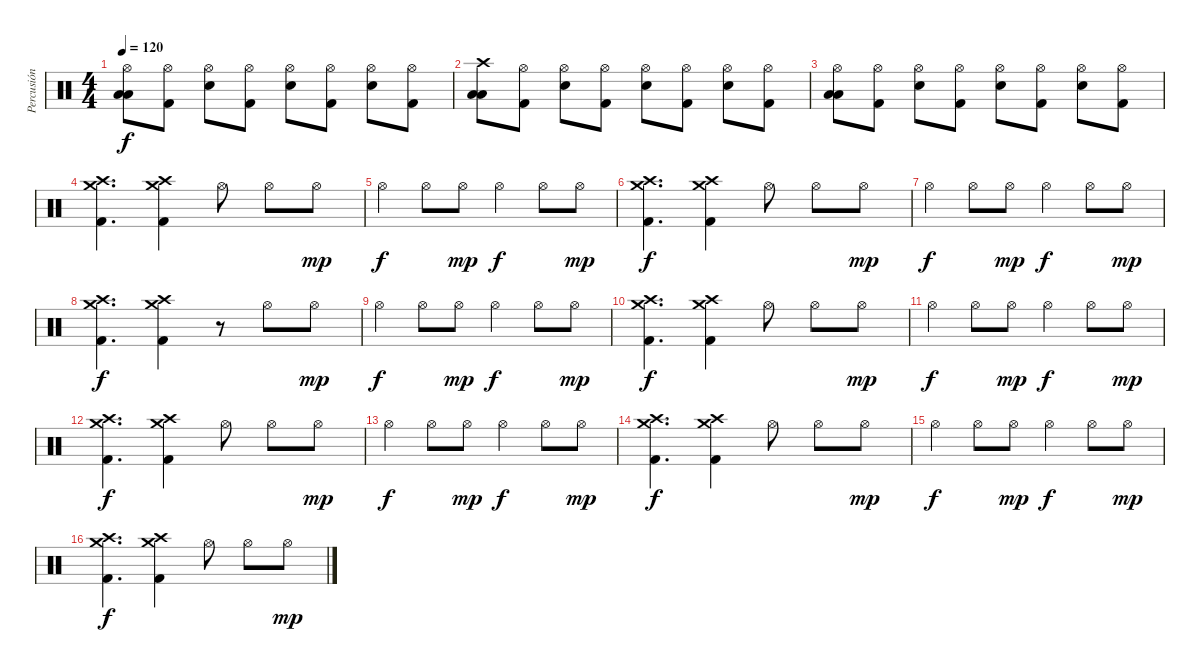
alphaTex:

\track ("Percusión" "Percusión") {instrument percussion}
\staff {score}
\articulation defaults
\ts (4 4)
\tempo 120
\clef neutral
\ks c
("Hi-Hat (open)" "Low Tom (hit)" "Low Floor Tom (hit)").8{dy f} ("Hi-Hat (open)" "Kick (hit) 2").8 ("Hi-Hat (open)" "Electric Snare (hit)").8 ("Hi-Hat (open)" "Kick (hit) 2").8 ("Hi-Hat (open)" "Electric Snare (hit)").8 ("Hi-Hat (open)" "Kick (hit) 2").8 ("Hi-Hat (open)" "Electric Snare (hit)").8 ("Hi-Hat (open)" "Kick (hit) 2").8 |
("Crash high (hit)" "Low Tom (hit)" "Low Floor Tom (hit)").8 ("Hi-Hat (open)" "Kick (hit) 2").8 ("Hi-Hat (open)" "Electric Snare (hit)").8 ("Hi-Hat (open)" "Kick (hit) 2").8 ("Hi-Hat (open)" "Electric Snare (hit)").8 ("Hi-Hat (open)" "Kick (hit) 2").8 ("Hi-Hat (open)" "Electric Snare (hit)").8 ("Hi-Hat (open)" "Kick (hit) 2").8 |
("Hi-Hat (open)" "Low Tom (hit)" "Low Floor Tom (hit)").8 ("Hi-Hat (open)" "Kick (hit) 2").8 ("Hi-Hat (open)" "Electric Snare (hit)").8 ("Hi-Hat (open)" "Kick (hit) 2").8 ("Hi-Hat (open)" "Electric Snare (hit)").8 ("Hi-Hat (open)" "Kick (hit) 2").8 ("Hi-Hat (open)" "Electric Snare (hit)").8 ("Hi-Hat (open)" "Kick (hit) 2").8 |
("Crash high (hit)" "Crash medium (hit)" "Kick (hit) 2").4{d} ("Crash high (hit)" "Crash medium (hit)" "Kick (hit) 2").4 "Hi-Hat (open)".8 "Hi-Hat (open)".8 "Hi-Hat (open)".8{dy mp} |
"Hi-Hat (open)".4{dy f} "Hi-Hat (open)".8 "Hi-Hat (open)".8{dy mp} "Hi-Hat (open)".4{dy f} "Hi-Hat (open)".8 "Hi-Hat (open)".8{dy mp} |
("Crash high (hit)" "Crash medium (hit)" "Kick (hit) 2").4{d dy f} ("Crash high (hit)" "Crash medium (hit)" "Kick (hit) 2").4 "Hi-Hat (open)".8 "Hi-Hat (open)".8 "Hi-Hat (open)".8{dy mp} |
"Hi-Hat (open)".4{dy f} "Hi-Hat (open)".8 "Hi-Hat (open)".8{dy mp} "Hi-Hat (open)".4{dy f} "Hi-Hat (open)".8 "Hi-Hat (open)".8{dy mp} |
("Crash high (hit)" "Crash medium (hit)" "Kick (hit) 2").4{d dy f} ("Crash high (hit)" "Crash medium (hit)" "Kick (hit) 2").4 r.8 "Hi-Hat (open)".8 "Hi-Hat (open)".8{dy mp} |
"Hi-Hat (open)".4{dy f} "Hi-Hat (open)".8 "Hi-Hat (open)".8{dy mp} "Hi-Hat (open)".4{dy f} "Hi-Hat (open)".8 "Hi-Hat (open)".8{dy mp} |
("Crash high (hit)" "Crash medium (hit)" "Kick (hit) 2").4{d dy f} ("Crash high (hit)" "Crash medium (hit)" "Kick (hit) 2").4 "Hi-Hat (open)".8 "Hi-Hat (open)".8 "Hi-Hat (open)".8{dy mp} |
"Hi-Hat (open)".4{dy f} "Hi-Hat (open)".8 "Hi-Hat (open)".8{dy mp} "Hi-Hat (open)".4{dy f} "Hi-Hat (open)".8 "Hi-Hat (open)".8{dy mp} |
("Crash high (hit)" "Crash medium (hit)" "Kick (hit) 2").4{d dy f} ("Crash high (hit)" "Crash medium (hit)" "Kick (hit) 2").4 "Hi-Hat (open)".8 "Hi-Hat (open)".8 "Hi-Hat (open)".8{dy mp} |
"Hi-Hat (open)".4{dy f} "Hi-Hat (open)".8 "Hi-Hat (open)".8{dy mp} "Hi-Hat (open)".4{dy f} "Hi-Hat (open)".8 "Hi-Hat (open)".8{dy mp} |
("Crash high (hit)" "Crash medium (hit)" "Kick (hit) 2").4{d dy f} ("Crash high (hit)" "Crash medium (hit)" "Kick (hit) 2").4 "Hi-Hat (open)".8 "Hi-Hat (open)".8 "Hi-Hat (open)".8{dy mp} |
"Hi-Hat (open)".4{dy f} "Hi-Hat (open)".8 "Hi-Hat (open)".8{dy mp} "Hi-Hat (open)".4{dy f} "Hi-Hat (open)".8 "Hi-Hat (open)".8{dy mp} |
("Crash high (hit)" "Crash medium (hit)" "Kick (hit) 2").4{d dy f} ("Crash high (hit)" "Crash medium (hit)" "Kick (hit) 2").4 "Hi-Hat (open)".8 "Hi-Hat (open)".8 "Hi-Hat (open)".8{dy mp}
